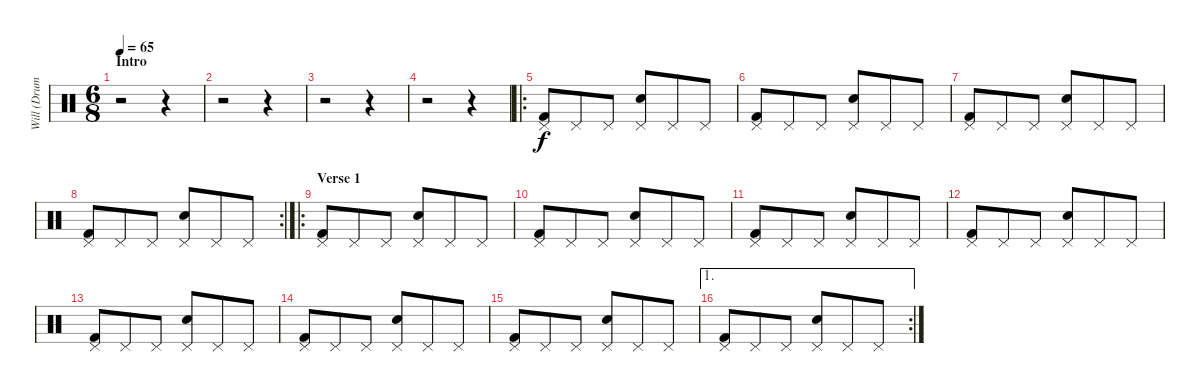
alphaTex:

\track ("Will (Drums)" "Will (Drum") {instrument percussion}
\staff {score}
\articulation defaults
\ts (6 8)
\section ("" "Intro")
\tempo 65
\clef neutral
\ks c
r.2{dy f} r.4 |
r.2 r.4 |
r.2 r.4 |
r.2 r.4 |
\ro
("Pedal Hi-Hat (hit)" "Kick (hit) 2").8 "Pedal Hi-Hat (hit)".8 "Pedal Hi-Hat (hit)".8 ("Pedal Hi-Hat (hit)" "Snare (hit) 2").8 "Pedal Hi-Hat (hit)".8 "Pedal Hi-Hat (hit)".8 |
("Pedal Hi-Hat (hit)" "Kick (hit) 2").8 "Pedal Hi-Hat (hit)".8 "Pedal Hi-Hat (hit)".8 ("Pedal Hi-Hat (hit)" "Snare (hit) 2").8 "Pedal Hi-Hat (hit)".8 "Pedal Hi-Hat (hit)".8 |
("Pedal Hi-Hat (hit)" "Kick (hit) 2").8 "Pedal Hi-Hat (hit)".8 "Pedal Hi-Hat (hit)".8 ("Pedal Hi-Hat (hit)" "Snare (hit) 2").8 "Pedal Hi-Hat (hit)".8 "Pedal Hi-Hat (hit)".8 |
\rc 2
("Pedal Hi-Hat (hit)" "Kick (hit) 2").8 "Pedal Hi-Hat (hit)".8 "Pedal Hi-Hat (hit)".8 ("Pedal Hi-Hat (hit)" "Snare (hit) 2").8 "Pedal Hi-Hat (hit)".8 "Pedal Hi-Hat (hit)".8 |
\ro
\section ("" "Verse 1")
("Pedal Hi-Hat (hit)" "Kick (hit) 2").8 "Pedal Hi-Hat (hit)".8 "Pedal Hi-Hat (hit)".8 ("Pedal Hi-Hat (hit)" "Snare (hit) 2").8 "Pedal Hi-Hat (hit)".8 "Pedal Hi-Hat (hit)".8 |
("Pedal Hi-Hat (hit)" "Kick (hit) 2").8 "Pedal Hi-Hat (hit)".8 "Pedal Hi-Hat (hit)".8 ("Pedal Hi-Hat (hit)" "Snare (hit) 2").8 "Pedal Hi-Hat (hit)".8 "Pedal Hi-Hat (hit)".8 |
("Pedal Hi-Hat (hit)" "Kick (hit) 2").8 "Pedal Hi-Hat (hit)".8 "Pedal Hi-Hat (hit)".8 ("Pedal Hi-Hat (hit)" "Snare (hit) 2").8 "Pedal Hi-Hat (hit)".8 "Pedal Hi-Hat (hit)".8 |
("Pedal Hi-Hat (hit)" "Kick (hit) 2").8 "Pedal Hi-Hat (hit)".8 "Pedal Hi-Hat (hit)".8 ("Pedal Hi-Hat (hit)" "Snare (hit) 2").8 "Pedal Hi-Hat (hit)".8 "Pedal Hi-Hat (hit)".8 |
("Pedal Hi-Hat (hit)" "Kick (hit) 2").8 "Pedal Hi-Hat (hit)".8 "Pedal Hi-Hat (hit)".8 ("Pedal Hi-Hat (hit)" "Snare (hit) 2").8 "Pedal Hi-Hat (hit)".8 "Pedal Hi-Hat (hit)".8 |
("Pedal Hi-Hat (hit)" "Kick (hit) 2").8 "Pedal Hi-Hat (hit)".8 "Pedal Hi-Hat (hit)".8 ("Pedal Hi-Hat (hit)" "Snare (hit) 2").8 "Pedal Hi-Hat (hit)".8 "Pedal Hi-Hat (hit)".8 |
("Pedal Hi-Hat (hit)" "Kick (hit) 2").8 "Pedal Hi-Hat (hit)".8 "Pedal Hi-Hat (hit)".8 ("Pedal Hi-Hat (hit)" "Snare (hit) 2").8 "Pedal Hi-Hat (hit)".8 "Pedal Hi-Hat (hit)".8 |
\ae 1
\rc 2
("Pedal Hi-Hat (hit)" "Kick (hit) 2").8 "Pedal Hi-Hat (hit)".8 "Pedal Hi-Hat (hit)".8 ("Pedal Hi-Hat (hit)" "Snare (hit) 2").8 "Pedal Hi-Hat (hit)".8 "Pedal Hi-Hat (hit)".8
